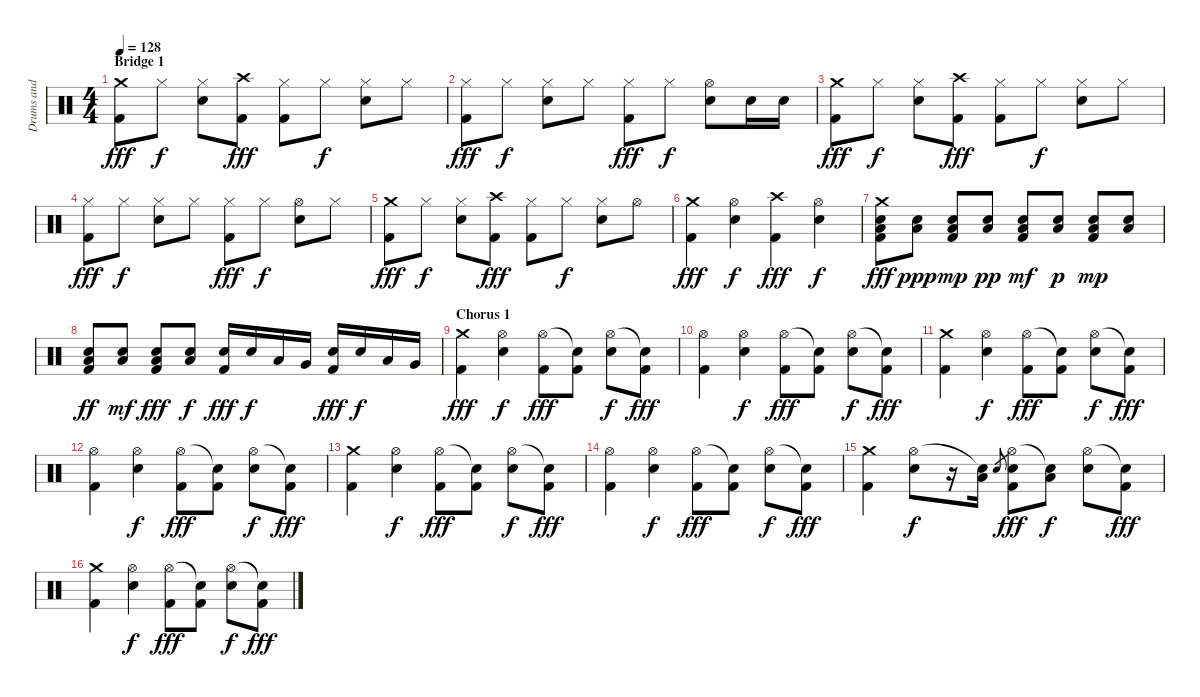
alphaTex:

\track ("Drums and Percussion" "Drums and ") {instrument percussion}
\staff {score}
\articulation defaults
\ts (4 4)
\section ("" "Bridge 1")
\tempo 128
\clef neutral
\ks c
("Crash medium (hit)" "Kick (hit) 2").8{dy fff} "Hi-Hat (closed)".8{dy f} ("Hi-Hat (closed)" "Electric Snare (hit)").8 ("Crash high (hit)" "Kick (hit) 2").8{dy fff} ("Hi-Hat (closed)" "Kick (hit) 2").8 "Hi-Hat (closed)".8{dy f} ("Hi-Hat (closed)" "Electric Snare (hit)").8 "Hi-Hat (closed)".8 |
("Hi-Hat (closed)" "Kick (hit) 2").8{dy fff} "Hi-Hat (closed)".8{dy f} ("Hi-Hat (closed)" "Electric Snare (hit)").8 "Hi-Hat (closed)".8 ("Hi-Hat (closed)" "Kick (hit) 2").8{dy fff} "Hi-Hat (closed)".8{dy f} ("Hi-Hat (open)" "Electric Snare (hit)").8 "Electric Snare (hit)".16 "Electric Snare (hit)".16 |
("Crash medium (hit)" "Kick (hit) 2").8{dy fff} "Hi-Hat (closed)".8{dy f} ("Hi-Hat (closed)" "Electric Snare (hit)").8 ("Crash high (hit)" "Kick (hit) 2").8{dy fff} ("Hi-Hat (closed)" "Kick (hit) 2").8 "Hi-Hat (closed)".8{dy f} ("Hi-Hat (closed)" "Electric Snare (hit)").8 "Hi-Hat (closed)".8 |
("Hi-Hat (closed)" "Kick (hit) 2").8{dy fff} "Hi-Hat (closed)".8{dy f} ("Hi-Hat (closed)" "Electric Snare (hit)").8 "Hi-Hat (closed)".8 ("Hi-Hat (closed)" "Kick (hit) 2").8{dy fff} "Hi-Hat (closed)".8{dy f} ("Hi-Hat (open)" "Electric Snare (hit)").8 "Hi-Hat (closed)".8 |
("Crash medium (hit)" "Kick (hit) 2").8{dy fff} "Hi-Hat (closed)".8{dy f} ("Hi-Hat (closed)" "Electric Snare (hit)").8 ("Crash high (hit)" "Kick (hit) 2").8{dy fff} ("Hi-Hat (closed)" "Kick (hit) 2").8 "Hi-Hat (closed)".8{dy f} ("Hi-Hat (closed)" "Electric Snare (hit)").8 "Hi-Hat (open)".8 |
("Crash medium (hit)" "Kick (hit) 2").4{dy fff} ("Hi-Hat (open)" "Electric Snare (hit)").4{dy f} ("Crash high (hit)" "Kick (hit) 2").4{dy fff} ("Hi-Hat (open)" "Electric Snare (hit)").4{dy f} |
("Crash medium (hit)" "Electric Snare (hit)" "Low Floor Tom (hit)" "Kick (hit) 2").8{dy fff} ("Electric Snare (hit)" "Low Floor Tom (hit)").8{dy ppp} ("Electric Snare (hit)" "Low Floor Tom (hit)" "Kick (hit) 2").8{dy mp} ("Electric Snare (hit)" "Low Floor Tom (hit)").8{dy pp} ("Electric Snare (hit)" "Low Floor Tom (hit)" "Kick (hit) 2").8{dy mf} ("Electric Snare (hit)" "Low Floor Tom (hit)").8{dy p} ("Electric Snare (hit)" "Low Floor Tom (hit)" "Kick (hit) 2").8{dy mp} ("Electric Snare (hit)" "Low Floor Tom (hit)").8 |
("Electric Snare (hit)" "Low Floor Tom (hit)" "Kick (hit) 2").8{dy ff} ("Electric Snare (hit)" "Low Floor Tom (hit)").8{dy mf} ("Electric Snare (hit)" "Low Floor Tom (hit)" "Kick (hit) 2").8{dy fff} ("Electric Snare (hit)" "Low Floor Tom (hit)").8{dy f} ("Electric Snare (hit)" "Kick (hit) 2").16{dy fff} "Electric Snare (hit)".16{dy f} "Low Tom (hit)".16 "Very Low Tom (hit)".16 ("Electric Snare (hit)" "Kick (hit) 2").16{dy fff} "Electric Snare (hit)".16{dy f} "Low Tom (hit)".16 "Very Low Tom (hit)".16 |
\section ("" "Chorus 1")
("Crash medium (hit)" "Kick (hit) 2").4{dy fff} ("Hi-Hat (open)" "Electric Snare (hit)").4{dy f} ("Hi-Hat (open)" "Kick (hit) 2").8{dy fff} ("Snare (hit)"{t} "Kick (hit) 2").8 ("Hi-Hat (open)" "Electric Snare (hit)").8{dy f} ("Snare (hit)"{t} "Kick (hit) 2").8{dy fff} |
("Hi-Hat (open)" "Kick (hit) 2").4 ("Hi-Hat (open)" "Electric Snare (hit)").4{dy f} ("Hi-Hat (open)" "Kick (hit) 2").8{dy fff} ("Snare (hit)"{t} "Kick (hit) 2").8 ("Hi-Hat (open)" "Electric Snare (hit)").8{dy f} ("Snare (hit)"{t} "Kick (hit) 2").8{dy fff} |
("Crash medium (hit)" "Kick (hit) 2").4 ("Hi-Hat (open)" "Electric Snare (hit)").4{dy f} ("Hi-Hat (open)" "Kick (hit) 2").8{dy fff} ("Snare (hit)"{t} "Kick (hit) 2").8 ("Hi-Hat (open)" "Electric Snare (hit)").8{dy f} ("Snare (hit)"{t} "Kick (hit) 2").8{dy fff} |
("Hi-Hat (open)" "Kick (hit) 2").4 ("Hi-Hat (open)" "Electric Snare (hit)").4{dy f} ("Hi-Hat (open)" "Kick (hit) 2").8{dy fff} ("Snare (hit)"{t} "Kick (hit) 2").8 ("Hi-Hat (open)" "Electric Snare (hit)").8{dy f} ("Snare (hit)"{t} "Kick (hit) 2").8{dy fff} |
("Crash medium (hit)" "Kick (hit) 2").4 ("Hi-Hat (open)" "Electric Snare (hit)").4{dy f} ("Hi-Hat (open)" "Kick (hit) 2").8{dy fff} ("Snare (hit)"{t} "Kick (hit) 2").8 ("Hi-Hat (open)" "Electric Snare (hit)").8{dy f} ("Snare (hit)"{t} "Kick (hit) 2").8{dy fff} |
("Hi-Hat (open)" "Kick (hit) 2").4 ("Hi-Hat (open)" "Electric Snare (hit)").4{dy f} ("Hi-Hat (open)" "Kick (hit) 2").8{dy fff} ("Snare (hit)"{t} "Kick (hit) 2").8 ("Hi-Hat (open)" "Electric Snare (hit)").8{dy f} ("Snare (hit)"{t} "Kick (hit) 2").8{dy fff} |
("Crash medium (hit)" "Kick (hit) 2").4 ("Hi-Hat (open)" "Electric Snare (hit)").8{dy f} r.16 ("Snare (hit)"{t} "Low Tom (hit)").16 "Electric Snare (hit)".8{gr} ("Hi-Hat (open)" "Electric Snare (hit)" "Kick (hit) 2").8{dy fff} ("Snare (hit)"{t} "Low Tom (hit)").8{dy f} ("Hi-Hat (open)" "Electric Snare (hit)").8 ("Snare (hit)"{t} "Kick (hit) 2").8{dy fff} |
("Crash medium (hit)" "Kick (hit) 2").4 ("Hi-Hat (open)" "Electric Snare (hit)").4{dy f} ("Hi-Hat (open)" "Kick (hit) 2").8{dy fff} ("Snare (hit)"{t} "Kick (hit) 2").8 ("Hi-Hat (open)" "Electric Snare (hit)").8{dy f} ("Snare (hit)"{t} "Kick (hit) 2").8{dy fff}
